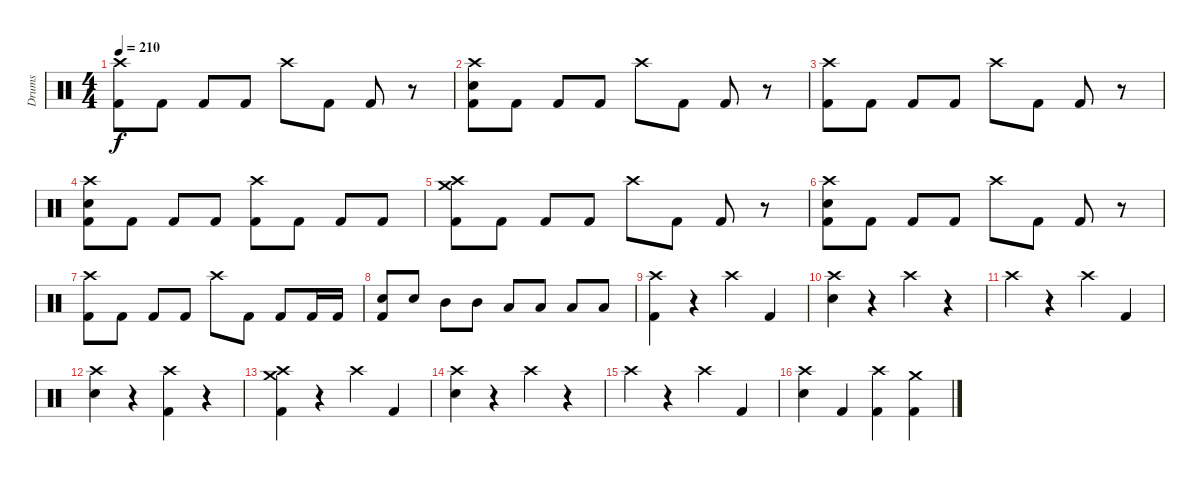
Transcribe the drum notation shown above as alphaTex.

\track ("Drums" "Drums") {instrument percussion}
\staff {score}
\articulation defaults
\ts (4 4)
\tempo 210
\clef neutral
\ks c
("Crash high (hit)" "Kick (hit) 2").8{dy f} "Kick (hit) 2".8 "Kick (hit) 2".8 "Kick (hit) 2".8 "Crash high (hit)".8 "Kick (hit) 2".8 "Kick (hit) 2".8 r.8 |
("Crash high (hit)" "Electric Snare (hit)" "Kick (hit) 2").8 "Kick (hit) 2".8 "Kick (hit) 2".8 "Kick (hit) 2".8 "Crash high (hit)".8 "Kick (hit) 2".8 "Kick (hit) 2".8 r.8 |
("Crash high (hit)" "Kick (hit) 2").8 "Kick (hit) 2".8 "Kick (hit) 2".8 "Kick (hit) 2".8 "Crash high (hit)".8 "Kick (hit) 2".8 "Kick (hit) 2".8 r.8 |
("Crash high (hit)" "Electric Snare (hit)" "Kick (hit) 2").8 "Kick (hit) 2".8 "Kick (hit) 2".8 "Kick (hit) 2".8 ("Crash high (hit)" "Kick (hit) 2").8 "Kick (hit) 2".8 "Kick (hit) 2".8 "Kick (hit) 2".8 |
("Crash high (hit)" "Crash medium (hit)" "Kick (hit) 2").8 "Kick (hit) 2".8 "Kick (hit) 2".8 "Kick (hit) 2".8 "Crash high (hit)".8 "Kick (hit) 2".8 "Kick (hit) 2".8 r.8 |
("Crash high (hit)" "Electric Snare (hit)" "Kick (hit) 2").8 "Kick (hit) 2".8 "Kick (hit) 2".8 "Kick (hit) 2".8 "Crash high (hit)".8 "Kick (hit) 2".8 "Kick (hit) 2".8 r.8 |
("Crash high (hit)" "Kick (hit) 2").8 "Kick (hit) 2".8 "Kick (hit) 2".8 "Kick (hit) 2".8 "Crash high (hit)".8 "Kick (hit) 2".8 "Kick (hit) 2".8 "Kick (hit) 2".16 "Kick (hit) 2".16 |
("Electric Snare (hit)" "Kick (hit) 2").8 "Electric Snare (hit)".8 "Mid Tom (hit)".8 "Mid Tom (hit)".8 "Low Tom (hit)".8 "Low Tom (hit)".8 "Low Tom (hit)".8 "Low Tom (hit)".8 |
("Crash high (hit)" "Kick (hit) 2").4 r.4 "Crash high (hit)".4 "Kick (hit) 2".4 |
("Crash high (hit)" "Electric Snare (hit)").4 r.4 "Crash high (hit)".4 r.4 |
"Crash high (hit)".4 r.4 "Crash high (hit)".4 "Kick (hit) 2".4 |
("Crash high (hit)" "Electric Snare (hit)").4 r.4 ("Crash high (hit)" "Kick (hit) 2").4 r.4 |
("Crash high (hit)" "Crash medium (hit)" "Kick (hit) 2").4 r.4 "Crash high (hit)".4 "Kick (hit) 2".4 |
("Crash high (hit)" "Electric Snare (hit)").4 r.4 "Crash high (hit)".4 r.4 |
"Crash high (hit)".4 r.4 "Crash high (hit)".4 "Kick (hit) 2".4 |
("Crash high (hit)" "Electric Snare (hit)").4 "Kick (hit) 2".4 ("Crash high (hit)" "Kick (hit) 2").4 ("Crash medium (hit)" "Kick (hit) 2").4
